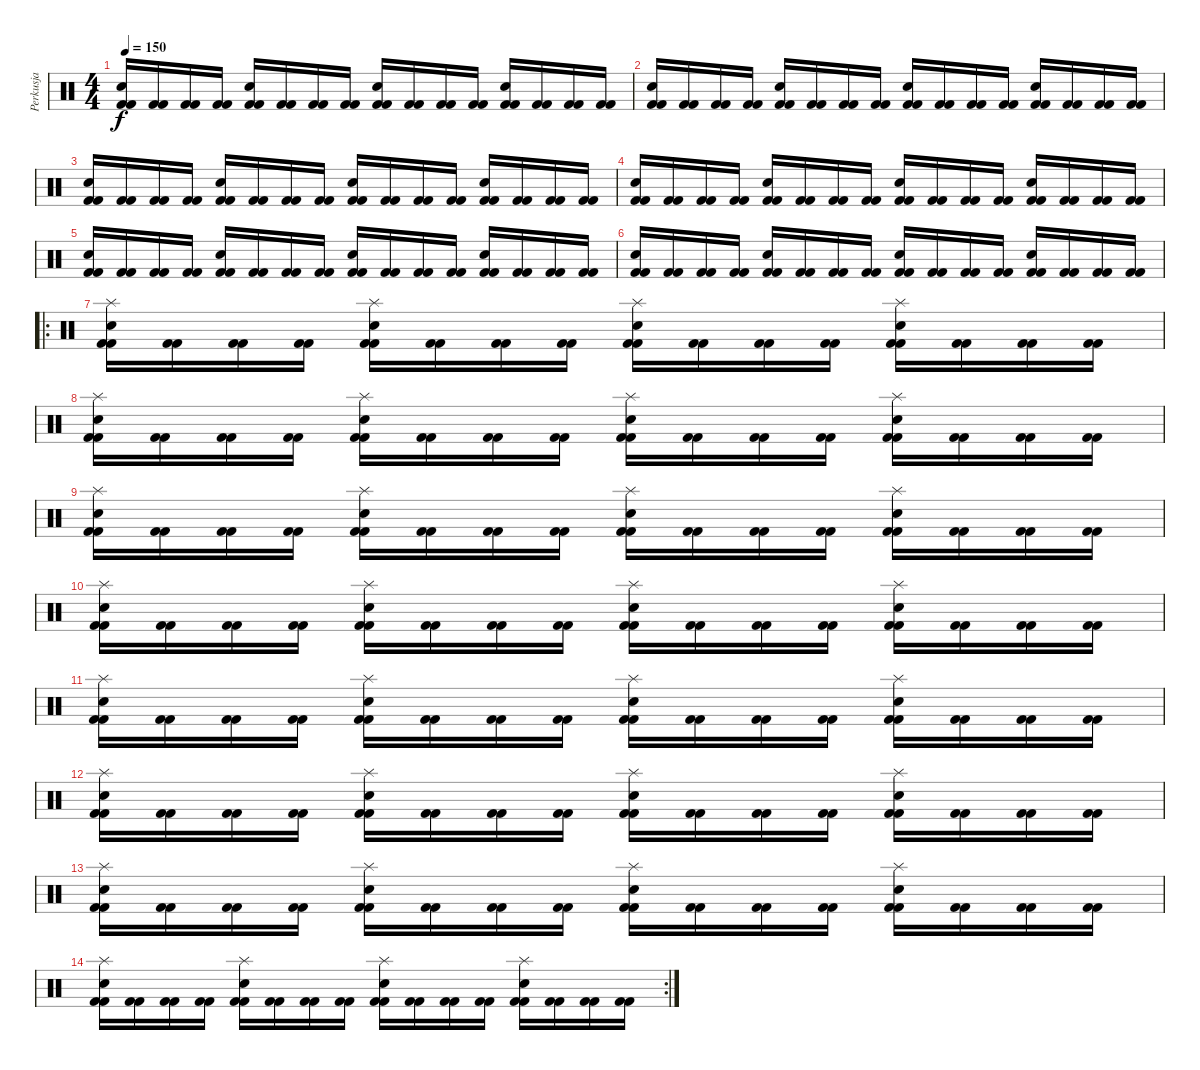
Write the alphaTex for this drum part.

\track ("Perkusja" "Perkusja") {instrument percussion}
\staff {score}
\articulation defaults
\ts (4 4)
\tempo 150
\clef neutral
\ks c
("Snare (hit) 2" "Kick (hit) 2" "Kick (hit) 2").16{dy f} ("Kick (hit) 2" "Kick (hit) 2").16 ("Kick (hit) 2" "Kick (hit) 2").16 ("Kick (hit) 2" "Kick (hit) 2").16 ("Electric Snare (hit)" "Kick (hit) 2" "Kick (hit) 2").16 ("Kick (hit) 2" "Kick (hit) 2").16 ("Kick (hit) 2" "Kick (hit) 2").16 ("Kick (hit) 2" "Kick (hit) 2").16 ("Snare (hit) 2" "Kick (hit) 2" "Kick (hit) 2").16 ("Kick (hit) 2" "Kick (hit) 2").16 ("Kick (hit) 2" "Kick (hit) 2").16 ("Kick (hit) 2" "Kick (hit) 2").16 ("Electric Snare (hit)" "Kick (hit) 2" "Kick (hit) 2").16 ("Kick (hit) 2" "Kick (hit) 2").16 ("Kick (hit) 2" "Kick (hit) 2").16 ("Kick (hit) 2" "Kick (hit) 2").16 |
("Snare (hit) 2" "Kick (hit) 2" "Kick (hit) 2").16 ("Kick (hit) 2" "Kick (hit) 2").16 ("Kick (hit) 2" "Kick (hit) 2").16 ("Kick (hit) 2" "Kick (hit) 2").16 ("Electric Snare (hit)" "Kick (hit) 2" "Kick (hit) 2").16 ("Kick (hit) 2" "Kick (hit) 2").16 ("Kick (hit) 2" "Kick (hit) 2").16 ("Kick (hit) 2" "Kick (hit) 2").16 ("Snare (hit) 2" "Kick (hit) 2" "Kick (hit) 2").16 ("Kick (hit) 2" "Kick (hit) 2").16 ("Kick (hit) 2" "Kick (hit) 2").16 ("Kick (hit) 2" "Kick (hit) 2").16 ("Electric Snare (hit)" "Kick (hit) 2" "Kick (hit) 2").16 ("Kick (hit) 2" "Kick (hit) 2").16 ("Kick (hit) 2" "Kick (hit) 2").16 ("Kick (hit) 2" "Kick (hit) 2").16 |
("Snare (hit) 2" "Kick (hit) 2" "Kick (hit) 2").16 ("Kick (hit) 2" "Kick (hit) 2").16 ("Kick (hit) 2" "Kick (hit) 2").16 ("Kick (hit) 2" "Kick (hit) 2").16 ("Electric Snare (hit)" "Kick (hit) 2" "Kick (hit) 2").16 ("Kick (hit) 2" "Kick (hit) 2").16 ("Kick (hit) 2" "Kick (hit) 2").16 ("Kick (hit) 2" "Kick (hit) 2").16 ("Snare (hit) 2" "Kick (hit) 2" "Kick (hit) 2").16 ("Kick (hit) 2" "Kick (hit) 2").16 ("Kick (hit) 2" "Kick (hit) 2").16 ("Kick (hit) 2" "Kick (hit) 2").16 ("Electric Snare (hit)" "Kick (hit) 2" "Kick (hit) 2").16 ("Kick (hit) 2" "Kick (hit) 2").16 ("Kick (hit) 2" "Kick (hit) 2").16 ("Kick (hit) 2" "Kick (hit) 2").16 |
("Snare (hit) 2" "Kick (hit) 2" "Kick (hit) 2").16 ("Kick (hit) 2" "Kick (hit) 2").16 ("Kick (hit) 2" "Kick (hit) 2").16 ("Kick (hit) 2" "Kick (hit) 2").16 ("Electric Snare (hit)" "Kick (hit) 2" "Kick (hit) 2").16 ("Kick (hit) 2" "Kick (hit) 2").16 ("Kick (hit) 2" "Kick (hit) 2").16 ("Kick (hit) 2" "Kick (hit) 2").16 ("Snare (hit) 2" "Kick (hit) 2" "Kick (hit) 2").16 ("Kick (hit) 2" "Kick (hit) 2").16 ("Kick (hit) 2" "Kick (hit) 2").16 ("Kick (hit) 2" "Kick (hit) 2").16 ("Electric Snare (hit)" "Kick (hit) 2" "Kick (hit) 2").16 ("Kick (hit) 2" "Kick (hit) 2").16 ("Kick (hit) 2" "Kick (hit) 2").16 ("Kick (hit) 2" "Kick (hit) 2").16 |
("Snare (hit) 2" "Kick (hit) 2" "Kick (hit) 2").16 ("Kick (hit) 2" "Kick (hit) 2").16 ("Kick (hit) 2" "Kick (hit) 2").16 ("Kick (hit) 2" "Kick (hit) 2").16 ("Electric Snare (hit)" "Kick (hit) 2" "Kick (hit) 2").16 ("Kick (hit) 2" "Kick (hit) 2").16 ("Kick (hit) 2" "Kick (hit) 2").16 ("Kick (hit) 2" "Kick (hit) 2").16 ("Snare (hit) 2" "Kick (hit) 2" "Kick (hit) 2").16 ("Kick (hit) 2" "Kick (hit) 2").16 ("Kick (hit) 2" "Kick (hit) 2").16 ("Kick (hit) 2" "Kick (hit) 2").16 ("Electric Snare (hit)" "Kick (hit) 2" "Kick (hit) 2").16 ("Kick (hit) 2" "Kick (hit) 2").16 ("Kick (hit) 2" "Kick (hit) 2").16 ("Kick (hit) 2" "Kick (hit) 2").16 |
("Snare (hit) 2" "Kick (hit) 2" "Kick (hit) 2").16 ("Kick (hit) 2" "Kick (hit) 2").16 ("Kick (hit) 2" "Kick (hit) 2").16 ("Kick (hit) 2" "Kick (hit) 2").16 ("Electric Snare (hit)" "Kick (hit) 2" "Kick (hit) 2").16 ("Kick (hit) 2" "Kick (hit) 2").16 ("Kick (hit) 2" "Kick (hit) 2").16 ("Kick (hit) 2" "Kick (hit) 2").16 ("Snare (hit) 2" "Kick (hit) 2" "Kick (hit) 2").16 ("Kick (hit) 2" "Kick (hit) 2").16 ("Kick (hit) 2" "Kick (hit) 2").16 ("Kick (hit) 2" "Kick (hit) 2").16 ("Electric Snare (hit)" "Kick (hit) 2" "Kick (hit) 2").16 ("Kick (hit) 2" "Kick (hit) 2").16 ("Kick (hit) 2" "Kick (hit) 2").16 ("Kick (hit) 2" "Kick (hit) 2").16 |
\ro
("Splash (hit)" "Snare (hit) 2" "Kick (hit) 2" "Kick (hit) 2").16 ("Kick (hit) 2" "Kick (hit) 2").16 ("Kick (hit) 2" "Kick (hit) 2").16 ("Kick (hit) 2" "Kick (hit) 2").16 ("Splash (hit)" "Electric Snare (hit)" "Kick (hit) 2" "Kick (hit) 2").16 ("Kick (hit) 2" "Kick (hit) 2").16 ("Kick (hit) 2" "Kick (hit) 2").16 ("Kick (hit) 2" "Kick (hit) 2").16 ("Splash (hit)" "Snare (hit) 2" "Kick (hit) 2" "Kick (hit) 2").16 ("Kick (hit) 2" "Kick (hit) 2").16 ("Kick (hit) 2" "Kick (hit) 2").16 ("Kick (hit) 2" "Kick (hit) 2").16 ("Splash (hit)" "Electric Snare (hit)" "Kick (hit) 2" "Kick (hit) 2").16 ("Kick (hit) 2" "Kick (hit) 2").16 ("Kick (hit) 2" "Kick (hit) 2").16 ("Kick (hit) 2" "Kick (hit) 2").16 |
("Splash (hit)" "Snare (hit) 2" "Kick (hit) 2" "Kick (hit) 2").16 ("Kick (hit) 2" "Kick (hit) 2").16 ("Kick (hit) 2" "Kick (hit) 2").16 ("Kick (hit) 2" "Kick (hit) 2").16 ("Splash (hit)" "Electric Snare (hit)" "Kick (hit) 2" "Kick (hit) 2").16 ("Kick (hit) 2" "Kick (hit) 2").16 ("Kick (hit) 2" "Kick (hit) 2").16 ("Kick (hit) 2" "Kick (hit) 2").16 ("Splash (hit)" "Snare (hit) 2" "Kick (hit) 2" "Kick (hit) 2").16 ("Kick (hit) 2" "Kick (hit) 2").16 ("Kick (hit) 2" "Kick (hit) 2").16 ("Kick (hit) 2" "Kick (hit) 2").16 ("Splash (hit)" "Electric Snare (hit)" "Kick (hit) 2" "Kick (hit) 2").16 ("Kick (hit) 2" "Kick (hit) 2").16 ("Kick (hit) 2" "Kick (hit) 2").16 ("Kick (hit) 2" "Kick (hit) 2").16 |
("Splash (hit)" "Snare (hit) 2" "Kick (hit) 2" "Kick (hit) 2").16 ("Kick (hit) 2" "Kick (hit) 2").16 ("Kick (hit) 2" "Kick (hit) 2").16 ("Kick (hit) 2" "Kick (hit) 2").16 ("Splash (hit)" "Electric Snare (hit)" "Kick (hit) 2" "Kick (hit) 2").16 ("Kick (hit) 2" "Kick (hit) 2").16 ("Kick (hit) 2" "Kick (hit) 2").16 ("Kick (hit) 2" "Kick (hit) 2").16 ("Splash (hit)" "Snare (hit) 2" "Kick (hit) 2" "Kick (hit) 2").16 ("Kick (hit) 2" "Kick (hit) 2").16 ("Kick (hit) 2" "Kick (hit) 2").16 ("Kick (hit) 2" "Kick (hit) 2").16 ("Splash (hit)" "Electric Snare (hit)" "Kick (hit) 2" "Kick (hit) 2").16 ("Kick (hit) 2" "Kick (hit) 2").16 ("Kick (hit) 2" "Kick (hit) 2").16 ("Kick (hit) 2" "Kick (hit) 2").16 |
("Splash (hit)" "Snare (hit) 2" "Kick (hit) 2" "Kick (hit) 2").16 ("Kick (hit) 2" "Kick (hit) 2").16 ("Kick (hit) 2" "Kick (hit) 2").16 ("Kick (hit) 2" "Kick (hit) 2").16 ("Splash (hit)" "Electric Snare (hit)" "Kick (hit) 2" "Kick (hit) 2").16 ("Kick (hit) 2" "Kick (hit) 2").16 ("Kick (hit) 2" "Kick (hit) 2").16 ("Kick (hit) 2" "Kick (hit) 2").16 ("Splash (hit)" "Snare (hit) 2" "Kick (hit) 2" "Kick (hit) 2").16 ("Kick (hit) 2" "Kick (hit) 2").16 ("Kick (hit) 2" "Kick (hit) 2").16 ("Kick (hit) 2" "Kick (hit) 2").16 ("Splash (hit)" "Electric Snare (hit)" "Kick (hit) 2" "Kick (hit) 2").16 ("Kick (hit) 2" "Kick (hit) 2").16 ("Kick (hit) 2" "Kick (hit) 2").16 ("Kick (hit) 2" "Kick (hit) 2").16 |
("Splash (hit)" "Snare (hit) 2" "Kick (hit) 2" "Kick (hit) 2").16 ("Kick (hit) 2" "Kick (hit) 2").16 ("Kick (hit) 2" "Kick (hit) 2").16 ("Kick (hit) 2" "Kick (hit) 2").16 ("Splash (hit)" "Electric Snare (hit)" "Kick (hit) 2" "Kick (hit) 2").16 ("Kick (hit) 2" "Kick (hit) 2").16 ("Kick (hit) 2" "Kick (hit) 2").16 ("Kick (hit) 2" "Kick (hit) 2").16 ("Splash (hit)" "Snare (hit) 2" "Kick (hit) 2" "Kick (hit) 2").16 ("Kick (hit) 2" "Kick (hit) 2").16 ("Kick (hit) 2" "Kick (hit) 2").16 ("Kick (hit) 2" "Kick (hit) 2").16 ("Splash (hit)" "Electric Snare (hit)" "Kick (hit) 2" "Kick (hit) 2").16 ("Kick (hit) 2" "Kick (hit) 2").16 ("Kick (hit) 2" "Kick (hit) 2").16 ("Kick (hit) 2" "Kick (hit) 2").16 |
("Splash (hit)" "Snare (hit) 2" "Kick (hit) 2" "Kick (hit) 2").16 ("Kick (hit) 2" "Kick (hit) 2").16 ("Kick (hit) 2" "Kick (hit) 2").16 ("Kick (hit) 2" "Kick (hit) 2").16 ("Splash (hit)" "Electric Snare (hit)" "Kick (hit) 2" "Kick (hit) 2").16 ("Kick (hit) 2" "Kick (hit) 2").16 ("Kick (hit) 2" "Kick (hit) 2").16 ("Kick (hit) 2" "Kick (hit) 2").16 ("Splash (hit)" "Snare (hit) 2" "Kick (hit) 2" "Kick (hit) 2").16 ("Kick (hit) 2" "Kick (hit) 2").16 ("Kick (hit) 2" "Kick (hit) 2").16 ("Kick (hit) 2" "Kick (hit) 2").16 ("Splash (hit)" "Electric Snare (hit)" "Kick (hit) 2" "Kick (hit) 2").16 ("Kick (hit) 2" "Kick (hit) 2").16 ("Kick (hit) 2" "Kick (hit) 2").16 ("Kick (hit) 2" "Kick (hit) 2").16 |
("Splash (hit)" "Snare (hit) 2" "Kick (hit) 2" "Kick (hit) 2").16 ("Kick (hit) 2" "Kick (hit) 2").16 ("Kick (hit) 2" "Kick (hit) 2").16 ("Kick (hit) 2" "Kick (hit) 2").16 ("Splash (hit)" "Electric Snare (hit)" "Kick (hit) 2" "Kick (hit) 2").16 ("Kick (hit) 2" "Kick (hit) 2").16 ("Kick (hit) 2" "Kick (hit) 2").16 ("Kick (hit) 2" "Kick (hit) 2").16 ("Splash (hit)" "Snare (hit) 2" "Kick (hit) 2" "Kick (hit) 2").16 ("Kick (hit) 2" "Kick (hit) 2").16 ("Kick (hit) 2" "Kick (hit) 2").16 ("Kick (hit) 2" "Kick (hit) 2").16 ("Splash (hit)" "Electric Snare (hit)" "Kick (hit) 2" "Kick (hit) 2").16 ("Kick (hit) 2" "Kick (hit) 2").16 ("Kick (hit) 2" "Kick (hit) 2").16 ("Kick (hit) 2" "Kick (hit) 2").16 |
\rc 2
("Splash (hit)" "Snare (hit) 2" "Kick (hit) 2" "Kick (hit) 2").16 ("Kick (hit) 2" "Kick (hit) 2").16 ("Kick (hit) 2" "Kick (hit) 2").16 ("Kick (hit) 2" "Kick (hit) 2").16 ("Splash (hit)" "Electric Snare (hit)" "Kick (hit) 2" "Kick (hit) 2").16 ("Kick (hit) 2" "Kick (hit) 2").16 ("Kick (hit) 2" "Kick (hit) 2").16 ("Kick (hit) 2" "Kick (hit) 2").16 ("Splash (hit)" "Snare (hit) 2" "Kick (hit) 2" "Kick (hit) 2").16 ("Kick (hit) 2" "Kick (hit) 2").16 ("Kick (hit) 2" "Kick (hit) 2").16 ("Kick (hit) 2" "Kick (hit) 2").16 ("Splash (hit)" "Electric Snare (hit)" "Kick (hit) 2" "Kick (hit) 2").16 ("Kick (hit) 2" "Kick (hit) 2").16 ("Kick (hit) 2" "Kick (hit) 2").16 ("Kick (hit) 2" "Kick (hit) 2").16
